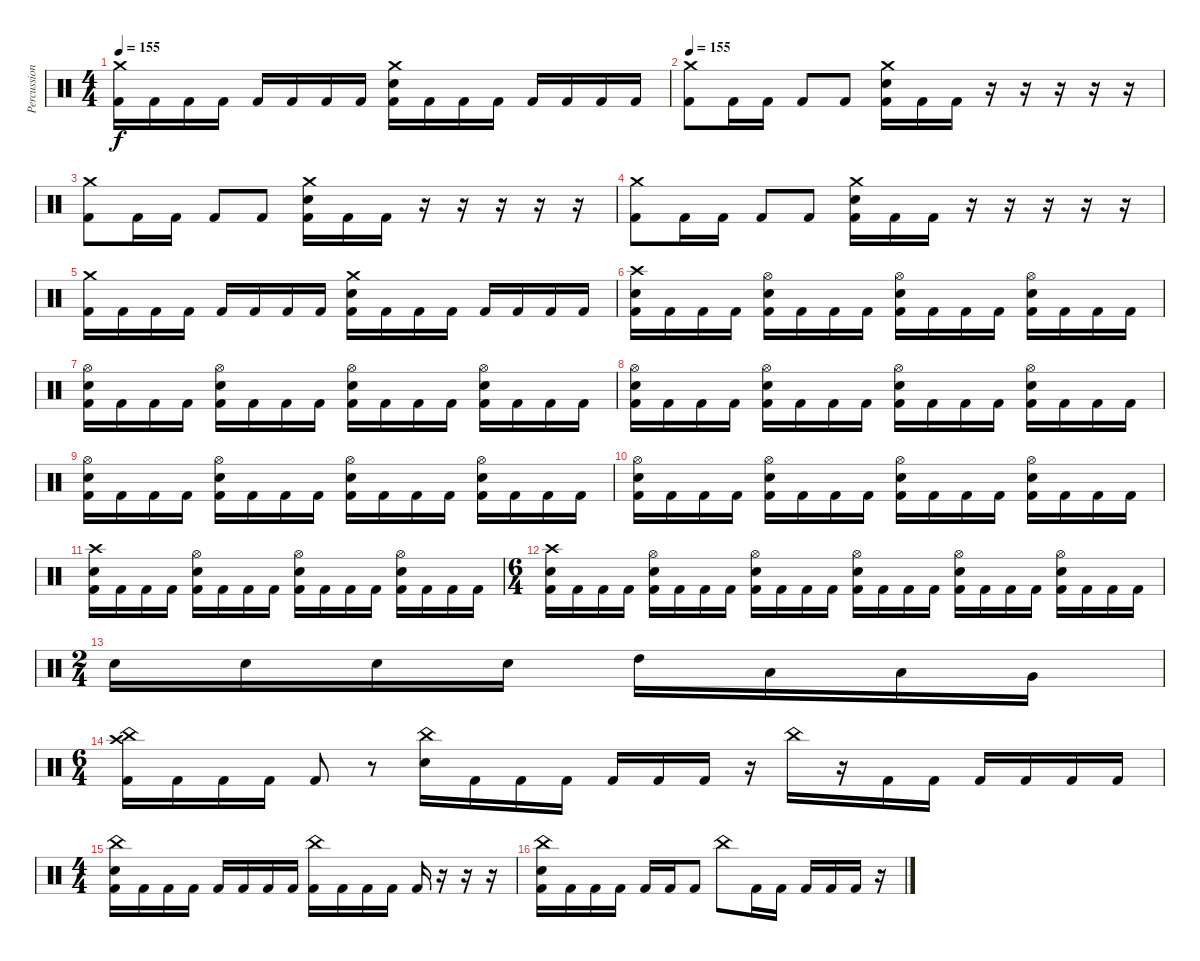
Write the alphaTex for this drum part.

\track ("Percussion" "Percussion") {instrument percussion}
\staff {score}
\articulation defaults
\ts (4 4)
\tempo 155
\clef neutral
\ks c
("Crash medium (hit)" "Kick (hit) 2").16{dy f} "Kick (hit) 2".16 "Kick (hit) 2".16 "Kick (hit) 2".16 "Kick (hit) 2".16 "Kick (hit) 2".16 "Kick (hit) 2".16 "Kick (hit) 2".16 ("Crash medium (hit)" "Electric Snare (hit)" "Kick (hit) 2").16 "Kick (hit) 2".16 "Kick (hit) 2".16 "Kick (hit) 2".16 "Kick (hit) 2".16 "Kick (hit) 2".16 "Kick (hit) 2".16 "Kick (hit) 2".16 |
\tempo 155
("Crash medium (hit)" "Kick (hit) 2").8 "Kick (hit) 2".16 "Kick (hit) 2".16 "Kick (hit) 2".8 "Kick (hit) 2".8 ("Crash medium (hit)" "Electric Snare (hit)" "Kick (hit) 2").16 "Kick (hit) 2".16 "Kick (hit) 2".16 r.16 r.16 r.16 r.16 r.16 |
("Crash medium (hit)" "Kick (hit) 2").8 "Kick (hit) 2".16 "Kick (hit) 2".16 "Kick (hit) 2".8 "Kick (hit) 2".8 ("Crash medium (hit)" "Electric Snare (hit)" "Kick (hit) 2").16 "Kick (hit) 2".16 "Kick (hit) 2".16 r.16 r.16 r.16 r.16 r.16 |
("Crash medium (hit)" "Kick (hit) 2").8 "Kick (hit) 2".16 "Kick (hit) 2".16 "Kick (hit) 2".8 "Kick (hit) 2".8 ("Crash medium (hit)" "Electric Snare (hit)" "Kick (hit) 2").16 "Kick (hit) 2".16 "Kick (hit) 2".16 r.16 r.16 r.16 r.16 r.16 |
("Crash medium (hit)" "Kick (hit) 2").16 "Kick (hit) 2".16 "Kick (hit) 2".16 "Kick (hit) 2".16 "Kick (hit) 2".16 "Kick (hit) 2".16 "Kick (hit) 2".16 "Kick (hit) 2".16 ("Crash medium (hit)" "Electric Snare (hit)" "Kick (hit) 2").16 "Kick (hit) 2".16 "Kick (hit) 2".16 "Kick (hit) 2".16 "Kick (hit) 2".16 "Kick (hit) 2".16 "Kick (hit) 2".16 "Kick (hit) 2".16 |
("Crash high (hit)" "Electric Snare (hit)" "Kick (hit) 2").16 "Kick (hit) 2".16 "Kick (hit) 2".16 "Kick (hit) 2".16 ("Hi-Hat (open)" "Electric Snare (hit)" "Kick (hit) 2").16 "Kick (hit) 2".16 "Kick (hit) 2".16 "Kick (hit) 2".16 ("Hi-Hat (open)" "Electric Snare (hit)" "Kick (hit) 2").16 "Kick (hit) 2".16 "Kick (hit) 2".16 "Kick (hit) 2".16 ("Hi-Hat (open)" "Electric Snare (hit)" "Kick (hit) 2").16 "Kick (hit) 2".16 "Kick (hit) 2".16 "Kick (hit) 2".16 |
("Hi-Hat (open)" "Electric Snare (hit)" "Kick (hit) 2").16 "Kick (hit) 2".16 "Kick (hit) 2".16 "Kick (hit) 2".16 ("Hi-Hat (open)" "Electric Snare (hit)" "Kick (hit) 2").16 "Kick (hit) 2".16 "Kick (hit) 2".16 "Kick (hit) 2".16 ("Hi-Hat (open)" "Electric Snare (hit)" "Kick (hit) 2").16 "Kick (hit) 2".16 "Kick (hit) 2".16 "Kick (hit) 2".16 ("Hi-Hat (open)" "Electric Snare (hit)" "Kick (hit) 2").16 "Kick (hit) 2".16 "Kick (hit) 2".16 "Kick (hit) 2".16 |
("Hi-Hat (open)" "Electric Snare (hit)" "Kick (hit) 2").16 "Kick (hit) 2".16 "Kick (hit) 2".16 "Kick (hit) 2".16 ("Hi-Hat (open)" "Electric Snare (hit)" "Kick (hit) 2").16 "Kick (hit) 2".16 "Kick (hit) 2".16 "Kick (hit) 2".16 ("Hi-Hat (open)" "Electric Snare (hit)" "Kick (hit) 2").16 "Kick (hit) 2".16 "Kick (hit) 2".16 "Kick (hit) 2".16 ("Hi-Hat (open)" "Electric Snare (hit)" "Kick (hit) 2").16 "Kick (hit) 2".16 "Kick (hit) 2".16 "Kick (hit) 2".16 |
("Hi-Hat (open)" "Electric Snare (hit)" "Kick (hit) 2").16 "Kick (hit) 2".16 "Kick (hit) 2".16 "Kick (hit) 2".16 ("Hi-Hat (open)" "Electric Snare (hit)" "Kick (hit) 2").16 "Kick (hit) 2".16 "Kick (hit) 2".16 "Kick (hit) 2".16 ("Hi-Hat (open)" "Electric Snare (hit)" "Kick (hit) 2").16 "Kick (hit) 2".16 "Kick (hit) 2".16 "Kick (hit) 2".16 ("Hi-Hat (open)" "Electric Snare (hit)" "Kick (hit) 2").16 "Kick (hit) 2".16 "Kick (hit) 2".16 "Kick (hit) 2".16 |
("Hi-Hat (open)" "Electric Snare (hit)" "Kick (hit) 2").16 "Kick (hit) 2".16 "Kick (hit) 2".16 "Kick (hit) 2".16 ("Hi-Hat (open)" "Electric Snare (hit)" "Kick (hit) 2").16 "Kick (hit) 2".16 "Kick (hit) 2".16 "Kick (hit) 2".16 ("Hi-Hat (open)" "Electric Snare (hit)" "Kick (hit) 2").16 "Kick (hit) 2".16 "Kick (hit) 2".16 "Kick (hit) 2".16 ("Hi-Hat (open)" "Electric Snare (hit)" "Kick (hit) 2").16 "Kick (hit) 2".16 "Kick (hit) 2".16 "Kick (hit) 2".16 |
("Crash high (hit)" "Electric Snare (hit)" "Kick (hit) 2").16 "Kick (hit) 2".16 "Kick (hit) 2".16 "Kick (hit) 2".16 ("Hi-Hat (open)" "Electric Snare (hit)" "Kick (hit) 2").16 "Kick (hit) 2".16 "Kick (hit) 2".16 "Kick (hit) 2".16 ("Hi-Hat (open)" "Electric Snare (hit)" "Kick (hit) 2").16 "Kick (hit) 2".16 "Kick (hit) 2".16 "Kick (hit) 2".16 ("Hi-Hat (open)" "Electric Snare (hit)" "Kick (hit) 2").16 "Kick (hit) 2".16 "Kick (hit) 2".16 "Kick (hit) 2".16 |
\ts (6 4)
("Crash high (hit)" "Electric Snare (hit)" "Kick (hit) 2").16 "Kick (hit) 2".16 "Kick (hit) 2".16 "Kick (hit) 2".16 ("Hi-Hat (open)" "Electric Snare (hit)" "Kick (hit) 2").16 "Kick (hit) 2".16 "Kick (hit) 2".16 "Kick (hit) 2".16 ("Hi-Hat (open)" "Electric Snare (hit)" "Kick (hit) 2").16 "Kick (hit) 2".16 "Kick (hit) 2".16 "Kick (hit) 2".16 ("Hi-Hat (open)" "Electric Snare (hit)" "Kick (hit) 2").16 "Kick (hit) 2".16 "Kick (hit) 2".16 "Kick (hit) 2".16 ("Hi-Hat (open)" "Electric Snare (hit)" "Kick (hit) 2").16 "Kick (hit) 2".16 "Kick (hit) 2".16 "Kick (hit) 2".16 ("Hi-Hat (open)" "Electric Snare (hit)" "Kick (hit) 2").16 "Kick (hit) 2".16 "Kick (hit) 2".16 "Kick (hit) 2".16 |
\ts (2 4)
"Electric Snare (hit)".16 "Electric Snare (hit)".16 "Electric Snare (hit)".16 "Electric Snare (hit)".16 "High Tom (hit)".16 "Low Tom (hit)".16 "Low Tom (hit)".16 "Very Low Tom (hit)".16 |
\ts (6 4)
("Crash high (hit)" "China (hit)" "Kick (hit) 2").16 "Kick (hit) 2".16 "Kick (hit) 2".16 "Kick (hit) 2".16 "Kick (hit) 2".8 r.8 ("China (hit)" "Electric Snare (hit)").16 "Kick (hit) 2".16 "Kick (hit) 2".16 "Kick (hit) 2".16 "Kick (hit) 2".16 "Kick (hit) 2".16 "Kick (hit) 2".16 r.16 "China (hit)".16 r.16 "Kick (hit) 2".16 "Kick (hit) 2".16 "Kick (hit) 2".16 "Kick (hit) 2".16 "Kick (hit) 2".16 "Kick (hit) 2".16 |
\ts (4 4)
("China (hit)" "Electric Snare (hit)" "Kick (hit) 2").16 "Kick (hit) 2".16 "Kick (hit) 2".16 "Kick (hit) 2".16 "Kick (hit) 2".16 "Kick (hit) 2".16 "Kick (hit) 2".16 "Kick (hit) 2".16 ("China (hit)" "Kick (hit) 2").16 "Kick (hit) 2".16 "Kick (hit) 2".16 "Kick (hit) 2".16 "Kick (hit) 2".16 r.16 r.16 r.16 |
("Electric Snare (hit)" "China (hit)" "Kick (hit) 2").16 "Kick (hit) 2".16 "Kick (hit) 2".16 "Kick (hit) 2".16 "Kick (hit) 2".16 "Kick (hit) 2".16 "Kick (hit) 2".8 "China (hit)".8 "Kick (hit) 2".16 "Kick (hit) 2".16 "Kick (hit) 2".16 "Kick (hit) 2".16 "Kick (hit) 2".16 r.16
